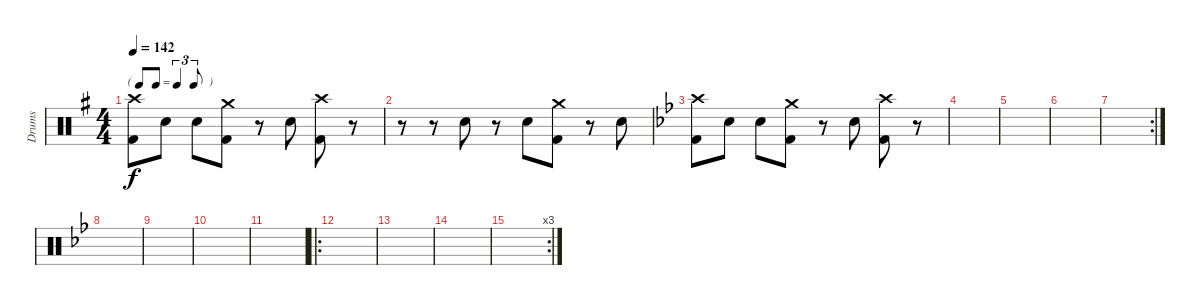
\track ("Drums" "Drums") {instrument percussion}
\staff {score}
\articulation defaults
\ts (4 4)
\tf triplet8th
\tempo 142
\clef neutral
\ks g
("Crash high (hit)" "Kick (hit) 2").8{dy f} "Snare (hit) 2".8 "Snare (hit) 2".8 ("Crash medium (hit)" "Kick (hit) 2").8 r.8 "Snare (hit) 2".8 ("Crash high (hit)" "Kick (hit) 2").8 r.8 |
r.8 r.8 "Snare (hit) 2".8 r.8 "Snare (hit) 2".8 ("Crash medium (hit)" "Kick (hit) 2").8 r.8 "Snare (hit) 2".8 |
\ks bb
("Crash high (hit)" "Kick (hit) 2").8 "Snare (hit) 2".8 "Snare (hit) 2".8 ("Crash medium (hit)" "Kick (hit) 2").8 r.8 "Snare (hit) 2".8 ("Crash high (hit)" "Kick (hit) 2").8 r.8 |
|
|
|
\rc 2
|
|
|
|
|
\ro
|
|
|
\rc 3
